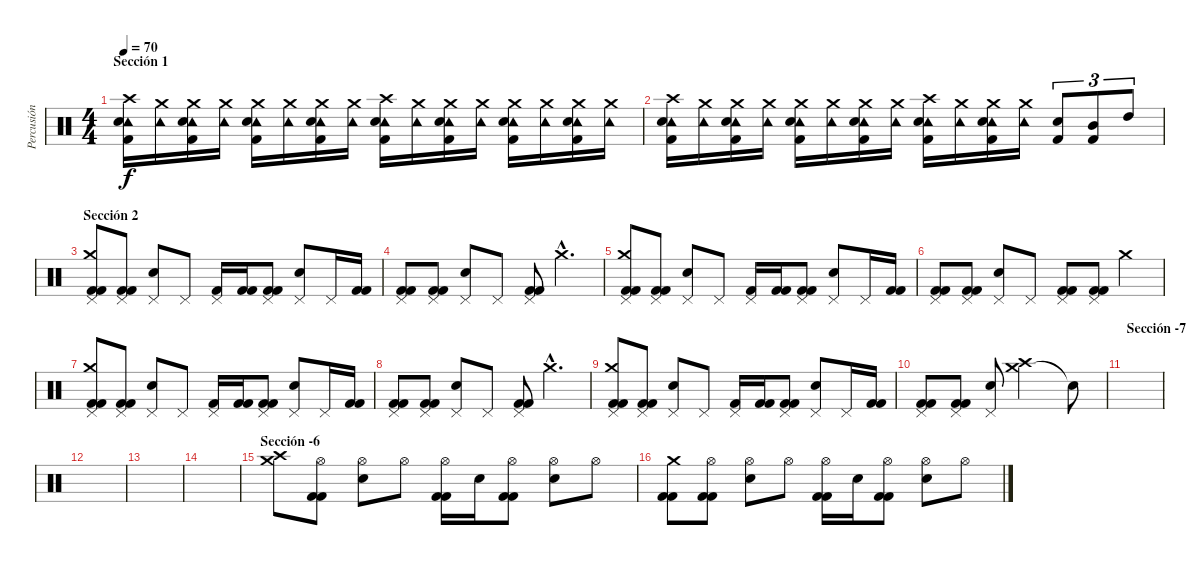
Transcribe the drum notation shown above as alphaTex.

\track ("Percusión" "Percusión") {instrument percussion}
\staff {score}
\articulation defaults
\ts (4 4)
\section ("" "Sección 1")
\tempo 70
\clef neutral
\ks c
("Crash high (hit)" "Tambourine (hit)" "Snare (hit) 2" "Kick (hit) 2").16{dy f} ("Crash medium (hit)" "Tambourine (hit)").16 ("Crash medium (hit)" "Tambourine (hit)" "Snare (hit) 2" "Kick (hit) 2").16 ("Crash medium (hit)" "Tambourine (hit)").16 ("Crash medium (hit)" "Tambourine (hit)" "Snare (hit) 2" "Kick (hit) 2").16 ("Crash medium (hit)" "Tambourine (hit)").16 ("Crash medium (hit)" "Tambourine (hit)" "Snare (hit) 2" "Kick (hit) 2").16 ("Crash medium (hit)" "Tambourine (hit)").16 ("Crash high (hit)" "Tambourine (hit)" "Snare (hit) 2" "Kick (hit) 2").16 ("Crash medium (hit)" "Tambourine (hit)").16 ("Crash medium (hit)" "Tambourine (hit)" "Snare (hit) 2" "Kick (hit) 2").16 ("Crash medium (hit)" "Tambourine (hit)").16 ("Crash medium (hit)" "Tambourine (hit)" "Snare (hit) 2" "Kick (hit) 2").16 ("Crash medium (hit)" "Tambourine (hit)").16 ("Crash medium (hit)" "Tambourine (hit)" "Snare (hit) 2" "Kick (hit) 2").16 ("Crash medium (hit)" "Tambourine (hit)").16 |
("Crash high (hit)" "Tambourine (hit)" "Snare (hit) 2" "Kick (hit) 2").16 ("Crash medium (hit)" "Tambourine (hit)").16 ("Crash medium (hit)" "Tambourine (hit)" "Snare (hit) 2" "Kick (hit) 2").16 ("Crash medium (hit)" "Tambourine (hit)").16 ("Crash medium (hit)" "Tambourine (hit)" "Snare (hit) 2" "Kick (hit) 2").16 ("Crash medium (hit)" "Tambourine (hit)").16 ("Crash medium (hit)" "Tambourine (hit)" "Snare (hit) 2" "Kick (hit) 2").16 ("Crash medium (hit)" "Tambourine (hit)").16 ("Crash high (hit)" "Tambourine (hit)" "Snare (hit) 2" "Kick (hit) 2").16 ("Crash medium (hit)" "Tambourine (hit)").16 ("Crash medium (hit)" "Tambourine (hit)" "Snare (hit) 2" "Kick (hit) 2").16 ("Crash medium (hit)" "Tambourine (hit)").16 ("Snare (hit) 2" "Kick (hit) 2").8{tu (3 2)} ("Mid Tom (hit)" "Kick (hit) 2").8{tu (3 2)} "High Tom (hit)".8{tu (3 2)} |
\section ("" "Sección 2")
("Crash medium (hit)" "Pedal Hi-Hat (hit)" "Kick (hit) 2" "Kick (hit) 2").8 ("Pedal Hi-Hat (hit)" "Kick (hit) 2" "Kick (hit) 2").8 ("Snare (hit) 2" "Pedal Hi-Hat (hit)").8 "Pedal Hi-Hat (hit)".8 ("Pedal Hi-Hat (hit)" "Kick (hit) 2").16 ("Kick (hit) 2" "Kick (hit) 2").16 ("Pedal Hi-Hat (hit)" "Kick (hit) 2" "Kick (hit) 2").8 ("Pedal Hi-Hat (hit)" "Snare (hit) 2").8 "Pedal Hi-Hat (hit)".16 ("Kick (hit) 2" "Kick (hit) 2").16 |
("Pedal Hi-Hat (hit)" "Kick (hit) 2" "Kick (hit) 2").8 ("Pedal Hi-Hat (hit)" "Kick (hit) 2" "Kick (hit) 2").8 ("Snare (hit) 2" "Pedal Hi-Hat (hit)").8 "Pedal Hi-Hat (hit)".8 ("Pedal Hi-Hat (hit)" "Kick (hit) 2" "Kick (hit) 2").8 "Crash medium (hit)"{hac}.4{d} |
("Crash medium (hit)" "Pedal Hi-Hat (hit)" "Kick (hit) 2" "Kick (hit) 2").8 ("Pedal Hi-Hat (hit)" "Kick (hit) 2" "Kick (hit) 2").8 ("Snare (hit) 2" "Pedal Hi-Hat (hit)").8 "Pedal Hi-Hat (hit)".8 ("Pedal Hi-Hat (hit)" "Kick (hit) 2").16 ("Kick (hit) 2" "Kick (hit) 2").16 ("Pedal Hi-Hat (hit)" "Kick (hit) 2" "Kick (hit) 2").8 ("Pedal Hi-Hat (hit)" "Snare (hit) 2").8 "Pedal Hi-Hat (hit)".16 ("Kick (hit) 2" "Kick (hit) 2").16 |
("Pedal Hi-Hat (hit)" "Kick (hit) 2" "Kick (hit) 2").8 ("Pedal Hi-Hat (hit)" "Kick (hit) 2" "Kick (hit) 2").8 ("Snare (hit) 2" "Pedal Hi-Hat (hit)").8 "Pedal Hi-Hat (hit)".8 ("Pedal Hi-Hat (hit)" "Kick (hit) 2" "Kick (hit) 2").8 ("Pedal Hi-Hat (hit)" "Kick (hit) 2" "Kick (hit) 2").8 "Crash medium (hit)".4 |
("Crash medium (hit)" "Pedal Hi-Hat (hit)" "Kick (hit) 2" "Kick (hit) 2").8 ("Pedal Hi-Hat (hit)" "Kick (hit) 2" "Kick (hit) 2").8 ("Snare (hit) 2" "Pedal Hi-Hat (hit)").8 "Pedal Hi-Hat (hit)".8 ("Pedal Hi-Hat (hit)" "Kick (hit) 2").16 ("Kick (hit) 2" "Kick (hit) 2").16 ("Pedal Hi-Hat (hit)" "Kick (hit) 2" "Kick (hit) 2").8 ("Pedal Hi-Hat (hit)" "Snare (hit) 2").8 "Pedal Hi-Hat (hit)".16 ("Kick (hit) 2" "Kick (hit) 2").16 |
("Pedal Hi-Hat (hit)" "Kick (hit) 2" "Kick (hit) 2").8 ("Pedal Hi-Hat (hit)" "Kick (hit) 2" "Kick (hit) 2").8 ("Snare (hit) 2" "Pedal Hi-Hat (hit)").8 "Pedal Hi-Hat (hit)".8 ("Pedal Hi-Hat (hit)" "Kick (hit) 2" "Kick (hit) 2").8 "Crash medium (hit)"{hac}.4{d} |
("Crash medium (hit)" "Pedal Hi-Hat (hit)" "Kick (hit) 2" "Kick (hit) 2").8 ("Pedal Hi-Hat (hit)" "Kick (hit) 2" "Kick (hit) 2").8 ("Snare (hit) 2" "Pedal Hi-Hat (hit)").8 "Pedal Hi-Hat (hit)".8 ("Pedal Hi-Hat (hit)" "Kick (hit) 2").16 ("Kick (hit) 2" "Kick (hit) 2").16 ("Pedal Hi-Hat (hit)" "Kick (hit) 2" "Kick (hit) 2").8 ("Pedal Hi-Hat (hit)" "Snare (hit) 2").8 "Pedal Hi-Hat (hit)".16 ("Kick (hit) 2" "Kick (hit) 2").16 |
("Pedal Hi-Hat (hit)" "Kick (hit) 2" "Kick (hit) 2").8 ("Pedal Hi-Hat (hit)" "Kick (hit) 2" "Kick (hit) 2").8 ("Snare (hit) 2" "Pedal Hi-Hat (hit)").8 ("Crash medium (hit)" "Crash high (hit)").2 "Snare (hit)"{t}.8 |
\section ("" "Sección -7")
|
|
|
|
\section ("" "Sección -6")
("Crash high (hit)" "Crash medium (hit)").8 ("Hi-Hat (open)" "Kick (hit) 2" "Kick (hit) 2").8 ("Hi-Hat (open)" "Electric Snare (hit)").8 "Hi-Hat (open)".8 ("Hi-Hat (open)" "Kick (hit) 2" "Kick (hit) 2").16 "Electric Snare (hit)".16 ("Hi-Hat (open)" "Kick (hit) 2" "Kick (hit) 2").8 ("Hi-Hat (open)" "Electric Snare (hit)").8 "Hi-Hat (open)".8 |
("Crash medium (hit)" "Kick (hit) 2" "Kick (hit) 2").8 ("Hi-Hat (open)" "Kick (hit) 2" "Kick (hit) 2").8 ("Hi-Hat (open)" "Electric Snare (hit)").8 "Hi-Hat (open)".8 ("Hi-Hat (open)" "Kick (hit) 2" "Kick (hit) 2").16 "Electric Snare (hit)".16 ("Hi-Hat (open)" "Kick (hit) 2" "Kick (hit) 2").8 ("Hi-Hat (open)" "Electric Snare (hit)").8 "Hi-Hat (open)".8
